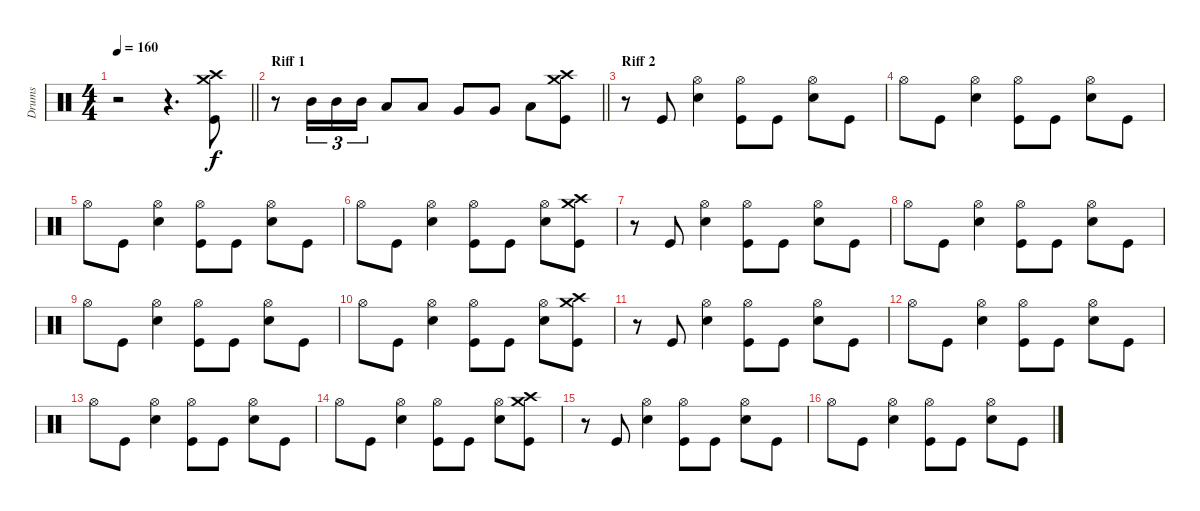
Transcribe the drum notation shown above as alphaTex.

\track ("Drums" "Drums") {instrument percussion}
\staff {score}
\articulation defaults
\ts (4 4)
\tempo 160
\clef neutral
\barLineRight lightlight
\ks c
r.2{dy f} r.4{d} ("Kick (hit)" "Crash medium (hit)" "Crash high (hit)").8 |
\section ("" "Riff 1")
\barLineRight lightlight
r.8 "Mid Tom (hit)".16{tu (3 2)} "Mid Tom (hit)".16{tu (3 2)} "Mid Tom (hit)".16{tu (3 2)} "Low Tom (hit)".8 "Low Tom (hit)".8 "Very Low Tom (hit)".8 "Very Low Tom (hit)".8 "Low Floor Tom (hit)".8 ("Kick (hit)" "Crash high (hit)" "Crash medium (hit)").8 |
\section ("" "Riff 2")
r.8 "Kick (hit)".8 ("Hi-Hat (open)" "Electric Snare (hit)").4 ("Kick (hit)" "Hi-Hat (open)").8 "Kick (hit)".8 ("Hi-Hat (open)" "Electric Snare (hit)").8 "Kick (hit)".8 |
"Hi-Hat (open)".8 "Kick (hit)".8 ("Hi-Hat (open)" "Electric Snare (hit)").4 ("Kick (hit)" "Hi-Hat (open)").8 "Kick (hit)".8 ("Hi-Hat (open)" "Electric Snare (hit)").8 "Kick (hit)".8 |
"Hi-Hat (open)".8 "Kick (hit)".8 ("Hi-Hat (open)" "Electric Snare (hit)").4 ("Kick (hit)" "Hi-Hat (open)").8 "Kick (hit)".8 ("Hi-Hat (open)" "Electric Snare (hit)").8 "Kick (hit)".8 |
"Hi-Hat (open)".8 "Kick (hit)".8 ("Hi-Hat (open)" "Electric Snare (hit)").4 ("Kick (hit)" "Hi-Hat (open)").8 "Kick (hit)".8 ("Hi-Hat (open)" "Electric Snare (hit)").8 ("Kick (hit)" "Crash medium (hit)" "Crash high (hit)").8 |
r.8 "Kick (hit)".8 ("Hi-Hat (open)" "Electric Snare (hit)").4 ("Kick (hit)" "Hi-Hat (open)").8 "Kick (hit)".8 ("Hi-Hat (open)" "Electric Snare (hit)").8 "Kick (hit)".8 |
"Hi-Hat (open)".8 "Kick (hit)".8 ("Hi-Hat (open)" "Electric Snare (hit)").4 ("Kick (hit)" "Hi-Hat (open)").8 "Kick (hit)".8 ("Hi-Hat (open)" "Electric Snare (hit)").8 "Kick (hit)".8 |
"Hi-Hat (open)".8 "Kick (hit)".8 ("Hi-Hat (open)" "Electric Snare (hit)").4 ("Kick (hit)" "Hi-Hat (open)").8 "Kick (hit)".8 ("Hi-Hat (open)" "Electric Snare (hit)").8 "Kick (hit)".8 |
"Hi-Hat (open)".8 "Kick (hit)".8 ("Hi-Hat (open)" "Electric Snare (hit)").4 ("Kick (hit)" "Hi-Hat (open)").8 "Kick (hit)".8 ("Hi-Hat (open)" "Electric Snare (hit)").8 ("Kick (hit)" "Crash medium (hit)" "Crash high (hit)").8 |
r.8 "Kick (hit)".8 ("Hi-Hat (open)" "Electric Snare (hit)").4 ("Kick (hit)" "Hi-Hat (open)").8 "Kick (hit)".8 ("Hi-Hat (open)" "Electric Snare (hit)").8 "Kick (hit)".8 |
"Hi-Hat (open)".8 "Kick (hit)".8 ("Hi-Hat (open)" "Electric Snare (hit)").4 ("Kick (hit)" "Hi-Hat (open)").8 "Kick (hit)".8 ("Hi-Hat (open)" "Electric Snare (hit)").8 "Kick (hit)".8 |
"Hi-Hat (open)".8 "Kick (hit)".8 ("Hi-Hat (open)" "Electric Snare (hit)").4 ("Kick (hit)" "Hi-Hat (open)").8 "Kick (hit)".8 ("Hi-Hat (open)" "Electric Snare (hit)").8 "Kick (hit)".8 |
"Hi-Hat (open)".8 "Kick (hit)".8 ("Hi-Hat (open)" "Electric Snare (hit)").4 ("Kick (hit)" "Hi-Hat (open)").8 "Kick (hit)".8 ("Hi-Hat (open)" "Electric Snare (hit)").8 ("Kick (hit)" "Crash medium (hit)" "Crash high (hit)").8 |
r.8 "Kick (hit)".8 ("Hi-Hat (open)" "Electric Snare (hit)").4 ("Kick (hit)" "Hi-Hat (open)").8 "Kick (hit)".8 ("Hi-Hat (open)" "Electric Snare (hit)").8 "Kick (hit)".8 |
"Hi-Hat (open)".8 "Kick (hit)".8 ("Hi-Hat (open)" "Electric Snare (hit)").4 ("Kick (hit)" "Hi-Hat (open)").8 "Kick (hit)".8 ("Hi-Hat (open)" "Electric Snare (hit)").8 "Kick (hit)".8
